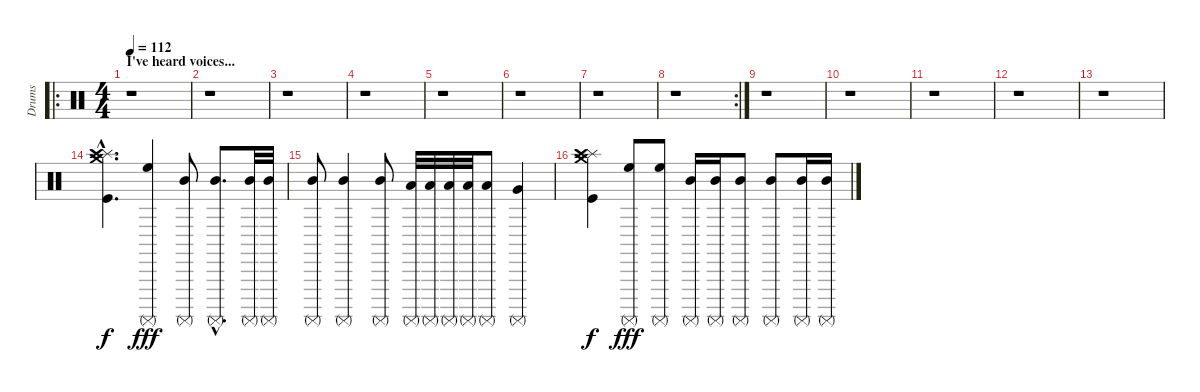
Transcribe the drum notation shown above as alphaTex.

\track ("Drums" "Drums") {instrument percussion}
\staff {score}
\articulation defaults
\ro
\ts (4 4)
\section ("" "I've heard voices...")
\tempo 112
\clef neutral
\ks c
r.1{dy f} |
r.1 |
r.1 |
r.1 |
r.1 |
r.1 |
r.1 |
\rc 2
r.1 |
r.1 |
r.1 |
r.1 |
r.1 |
r.1 |
("Crash medium (hit)"{hac} "Splash (hit)"{hac} "Crash high (hit)"{hac} "Kick (hit)"{hac}).4{d} ("Surdo (mute)" "High Floor Tom (hit)").4{dy fff} ("Surdo (mute)" "Mid Tom (hit)").8 ("Surdo (mute)"{hac} "Mid Tom (hit)"{hac}).8{d} ("Surdo (mute)" "Mid Tom (hit)").32 ("Surdo (mute)" "Mid Tom (hit)").32 |
("Surdo (mute)" "Mid Tom (hit)").8 ("Surdo (mute)" "Mid Tom (hit)").4 ("Surdo (mute)" "Mid Tom (hit)").8 ("Surdo (mute)" "Low Tom (hit)").32 ("Surdo (mute)" "Low Tom (hit)").32 ("Surdo (mute)" "Low Tom (hit)").32 ("Surdo (mute)" "Low Tom (hit)").32 ("Surdo (mute)" "Low Tom (hit)").8 ("Surdo (mute)" "Very Low Tom (hit)").4 |
("Crash medium (hit)" "Splash (hit)" "Crash high (hit)" "Kick (hit)").4{dy f} ("Surdo (mute)" "High Floor Tom (hit)").8{dy fff} ("Surdo (mute)" "High Floor Tom (hit)").8 ("Surdo (mute)" "Mid Tom (hit)").16 ("Surdo (mute)" "Mid Tom (hit)").16 ("Surdo (mute)" "Mid Tom (hit)").8 ("Surdo (mute)" "Mid Tom (hit)").8 ("Surdo (mute)" "Mid Tom (hit)").16 ("Surdo (mute)" "Mid Tom (hit)").16
